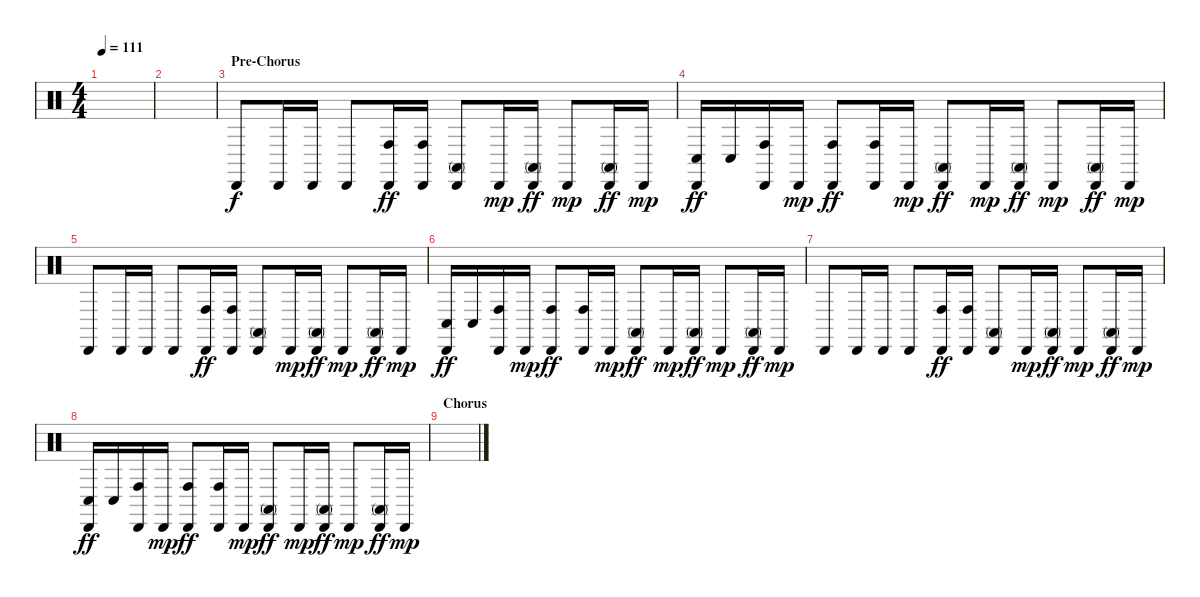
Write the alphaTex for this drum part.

\track "" {instrument percussion}
\staff {score}
\articulation defaults
\ts (4 4)
\tempo 111
\clef neutral
\ks c
|
|
\section ("" "Pre-Chorus")
"Cabasa (hit)".8 "Cabasa (hit)".16 "Cabasa (hit)".16 "Cabasa (hit)".8 ("Cabasa (hit)" "Conga high (hit)").16{dy ff} ("Cabasa (hit)" "Conga high (hit)").16 ("Cabasa (hit)" "Conga high (mute)").8 "Cabasa (hit)".16{dy mp} ("Cabasa (hit)" "Conga high (mute)").16{dy ff} "Cabasa (hit)".8{dy mp} ("Cabasa (hit)" "Conga high (mute)").16{dy ff} "Cabasa (hit)".16{dy mp} |
("Cabasa (hit)" "Conga low (hit)").16{dy ff} "Conga low (hit)".16 ("Cabasa (hit)" "Conga high (hit)").16 "Cabasa (hit)".16{dy mp} ("Cabasa (hit)" "Conga high (hit)").8{dy ff} ("Cabasa (hit)" "Conga high (hit)").16 "Cabasa (hit)".16{dy mp} ("Cabasa (hit)" "Conga high (mute)").8{dy ff} "Cabasa (hit)".16{dy mp} ("Cabasa (hit)" "Conga high (mute)").16{dy ff} "Cabasa (hit)".8{dy mp} ("Cabasa (hit)" "Conga high (mute)").16{dy ff} "Cabasa (hit)".16{dy mp} |
"Cabasa (hit)".8 "Cabasa (hit)".16 "Cabasa (hit)".16 "Cabasa (hit)".8 ("Cabasa (hit)" "Conga high (hit)").16{dy ff} ("Cabasa (hit)" "Conga high (hit)").16 ("Cabasa (hit)" "Conga high (mute)").8 "Cabasa (hit)".16{dy mp} ("Cabasa (hit)" "Conga high (mute)").16{dy ff} "Cabasa (hit)".8{dy mp} ("Cabasa (hit)" "Conga high (mute)").16{dy ff} "Cabasa (hit)".16{dy mp} |
("Cabasa (hit)" "Conga low (hit)").16{dy ff} "Conga low (hit)".16 ("Cabasa (hit)" "Conga high (hit)").16 "Cabasa (hit)".16{dy mp} ("Cabasa (hit)" "Conga high (hit)").8{dy ff} ("Cabasa (hit)" "Conga high (hit)").16 "Cabasa (hit)".16{dy mp} ("Cabasa (hit)" "Conga high (mute)").8{dy ff} "Cabasa (hit)".16{dy mp} ("Cabasa (hit)" "Conga high (mute)").16{dy ff} "Cabasa (hit)".8{dy mp} ("Cabasa (hit)" "Conga high (mute)").16{dy ff} "Cabasa (hit)".16{dy mp} |
"Cabasa (hit)".8 "Cabasa (hit)".16 "Cabasa (hit)".16 "Cabasa (hit)".8 ("Cabasa (hit)" "Conga high (hit)").16{dy ff} ("Cabasa (hit)" "Conga high (hit)").16 ("Cabasa (hit)" "Conga high (mute)").8 "Cabasa (hit)".16{dy mp} ("Cabasa (hit)" "Conga high (mute)").16{dy ff} "Cabasa (hit)".8{dy mp} ("Cabasa (hit)" "Conga high (mute)").16{dy ff} "Cabasa (hit)".16{dy mp} |
("Cabasa (hit)" "Conga low (hit)").16{dy ff} "Conga low (hit)".16 ("Cabasa (hit)" "Conga high (hit)").16 "Cabasa (hit)".16{dy mp} ("Cabasa (hit)" "Conga high (hit)").8{dy ff} ("Cabasa (hit)" "Conga high (hit)").16 "Cabasa (hit)".16{dy mp} ("Cabasa (hit)" "Conga high (mute)").8{dy ff} "Cabasa (hit)".16{dy mp} ("Cabasa (hit)" "Conga high (mute)").16{dy ff} "Cabasa (hit)".8{dy mp} ("Cabasa (hit)" "Conga high (mute)").16{dy ff} "Cabasa (hit)".16{dy mp} |
\section ("" "Chorus")
